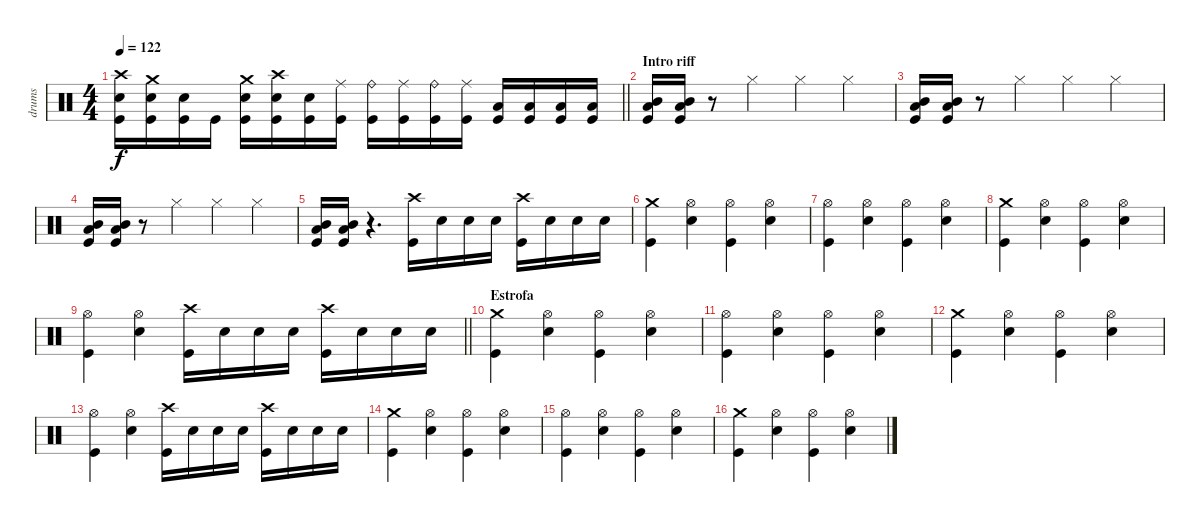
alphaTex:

\track ("drums" "drums") {instrument percussion}
\staff {score}
\articulation defaults
\ts (4 4)
\tempo 122
\clef neutral
\barLineRight lightlight
\ks c
("Snare (hit) 2" "Kick (hit)" "Crash high (hit)").16{dy f} ("Snare (hit) 2" "Kick (hit)" "Crash medium (hit)").16 ("Snare (hit) 2" "Kick (hit)").16 "Kick (hit)".16 ("Snare (hit) 2" "Kick (hit)" "Crash medium (hit)").16 ("Snare (hit) 2" "Kick (hit)" "Crash high (hit)").16 ("Snare (hit) 2" "Kick (hit)").16 ("Kick (hit)" "Ride (middle)").16 ("Kick (hit)" "Ride (bell)").16 ("Kick (hit)" "Ride (middle)").16 ("Kick (hit)" "Ride (bell)").16 ("Kick (hit)" "Ride (middle)").16 ("Kick (hit)" "Low Floor Tom (hit)").16 ("Kick (hit)" "Low Floor Tom (hit)").16 ("Kick (hit)" "Low Floor Tom (hit)").16 ("Kick (hit)" "Low Floor Tom (hit)").16 |
\section ("" "Intro riff")
("Kick (hit)" "Low Floor Tom (hit)" "Mid Tom (hit)").16 ("Kick (hit)" "Low Floor Tom (hit)" "Mid Tom (hit)").16 r.8 "Hi-Hat (closed)".4 "Hi-Hat (closed)".4 "Hi-Hat (closed)".4 |
("Kick (hit)" "Low Floor Tom (hit)" "Mid Tom (hit)").16 ("Kick (hit)" "Low Floor Tom (hit)" "Mid Tom (hit)").16 r.8 "Hi-Hat (closed)".4 "Hi-Hat (closed)".4 "Hi-Hat (closed)".4 |
("Kick (hit)" "Low Floor Tom (hit)" "Mid Tom (hit)").16 ("Kick (hit)" "Low Floor Tom (hit)" "Mid Tom (hit)").16 r.8 "Hi-Hat (closed)".4 "Hi-Hat (closed)".4 "Hi-Hat (closed)".4 |
("Kick (hit)" "Low Floor Tom (hit)" "Mid Tom (hit)").16 ("Kick (hit)" "Low Floor Tom (hit)" "Mid Tom (hit)").16 r.4{d} ("Kick (hit)" "Crash high (hit)").16 "Snare (hit) 2".16 "Snare (hit) 2".16 "Snare (hit) 2".16 ("Kick (hit)" "Crash high (hit)").16 "Snare (hit) 2".16 "Snare (hit) 2".16 "Snare (hit) 2".16 |
("Kick (hit)" "Crash medium (hit)").4 ("Snare (hit) 2" "Hi-Hat (open)").4 ("Kick (hit)" "Hi-Hat (open)").4 ("Snare (hit) 2" "Hi-Hat (open)").4 |
("Kick (hit)" "Hi-Hat (open)").4 ("Snare (hit) 2" "Hi-Hat (open)").4 ("Kick (hit)" "Hi-Hat (open)").4 ("Snare (hit) 2" "Hi-Hat (open)").4 |
("Kick (hit)" "Crash medium (hit)").4 ("Snare (hit) 2" "Hi-Hat (open)").4 ("Kick (hit)" "Hi-Hat (open)").4 ("Snare (hit) 2" "Hi-Hat (open)").4 |
\barLineRight lightlight
("Kick (hit)" "Hi-Hat (open)").4 ("Snare (hit) 2" "Hi-Hat (open)").4 ("Kick (hit)" "Crash high (hit)").16 "Snare (hit) 2".16 "Snare (hit) 2".16 "Snare (hit) 2".16 ("Kick (hit)" "Crash high (hit)").16 "Snare (hit) 2".16 "Snare (hit) 2".16 "Snare (hit) 2".16 |
\section ("" "Estrofa")
("Kick (hit)" "Crash medium (hit)").4 ("Snare (hit) 2" "Hi-Hat (open)").4 ("Kick (hit)" "Hi-Hat (open)").4 ("Snare (hit) 2" "Hi-Hat (open)").4 |
("Kick (hit)" "Hi-Hat (open)").4 ("Snare (hit) 2" "Hi-Hat (open)").4 ("Kick (hit)" "Hi-Hat (open)").4 ("Snare (hit) 2" "Hi-Hat (open)").4 |
("Kick (hit)" "Crash medium (hit)").4 ("Snare (hit) 2" "Hi-Hat (open)").4 ("Kick (hit)" "Hi-Hat (open)").4 ("Snare (hit) 2" "Hi-Hat (open)").4 |
("Kick (hit)" "Hi-Hat (open)").4 ("Snare (hit) 2" "Hi-Hat (open)").4 ("Kick (hit)" "Crash high (hit)").16 "Snare (hit) 2".16 "Snare (hit) 2".16 "Snare (hit) 2".16 ("Kick (hit)" "Crash high (hit)").16 "Snare (hit) 2".16 "Snare (hit) 2".16 "Snare (hit) 2".16 |
("Kick (hit)" "Crash medium (hit)").4 ("Snare (hit) 2" "Hi-Hat (open)").4 ("Kick (hit)" "Hi-Hat (open)").4 ("Snare (hit) 2" "Hi-Hat (open)").4 |
("Kick (hit)" "Hi-Hat (open)").4 ("Snare (hit) 2" "Hi-Hat (open)").4 ("Kick (hit)" "Hi-Hat (open)").4 ("Snare (hit) 2" "Hi-Hat (open)").4 |
("Kick (hit)" "Crash medium (hit)").4 ("Snare (hit) 2" "Hi-Hat (open)").4 ("Kick (hit)" "Hi-Hat (open)").4 ("Snare (hit) 2" "Hi-Hat (open)").4
